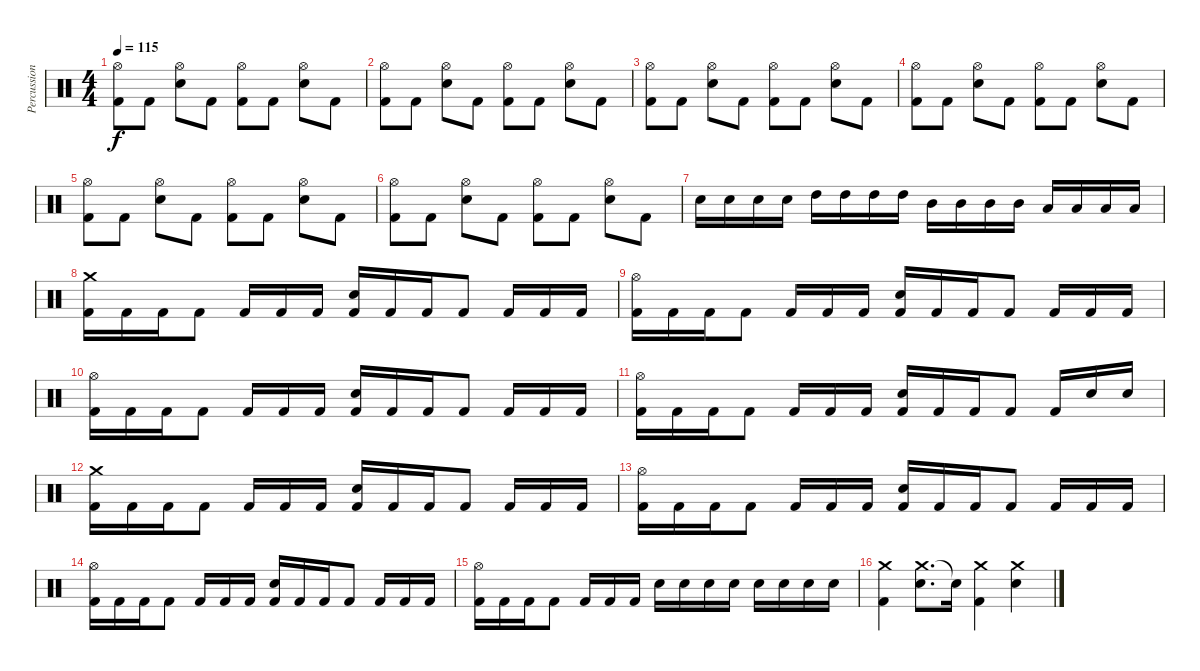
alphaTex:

\track ("Percussions" "Percussion") {instrument percussion}
\staff {score}
\articulation defaults
\ts (4 4)
\tempo 115
\clef neutral
\ks c
("Hi-Hat (open)" "Kick (hit) 2").8{dy f} "Kick (hit) 2".8 ("Hi-Hat (open)" "Electric Snare (hit)").8 "Kick (hit) 2".8 ("Hi-Hat (open)" "Kick (hit) 2").8 "Kick (hit) 2".8 ("Hi-Hat (open)" "Electric Snare (hit)").8 "Kick (hit) 2".8 |
("Hi-Hat (open)" "Kick (hit) 2").8 "Kick (hit) 2".8 ("Hi-Hat (open)" "Electric Snare (hit)").8 "Kick (hit) 2".8 ("Hi-Hat (open)" "Kick (hit) 2").8 "Kick (hit) 2".8 ("Hi-Hat (open)" "Electric Snare (hit)").8 "Kick (hit) 2".8 |
("Hi-Hat (open)" "Kick (hit) 2").8 "Kick (hit) 2".8 ("Hi-Hat (open)" "Electric Snare (hit)").8 "Kick (hit) 2".8 ("Hi-Hat (open)" "Kick (hit) 2").8 "Kick (hit) 2".8 ("Hi-Hat (open)" "Electric Snare (hit)").8 "Kick (hit) 2".8 |
("Hi-Hat (open)" "Kick (hit) 2").8 "Kick (hit) 2".8 ("Hi-Hat (open)" "Electric Snare (hit)").8 "Kick (hit) 2".8 ("Hi-Hat (open)" "Kick (hit) 2").8 "Kick (hit) 2".8 ("Hi-Hat (open)" "Electric Snare (hit)").8 "Kick (hit) 2".8 |
("Hi-Hat (open)" "Kick (hit) 2").8 "Kick (hit) 2".8 ("Hi-Hat (open)" "Electric Snare (hit)").8 "Kick (hit) 2".8 ("Hi-Hat (open)" "Kick (hit) 2").8 "Kick (hit) 2".8 ("Hi-Hat (open)" "Electric Snare (hit)").8 "Kick (hit) 2".8 |
("Hi-Hat (open)" "Kick (hit) 2").8 "Kick (hit) 2".8 ("Hi-Hat (open)" "Electric Snare (hit)").8 "Kick (hit) 2".8 ("Hi-Hat (open)" "Kick (hit) 2").8 "Kick (hit) 2".8 ("Hi-Hat (open)" "Electric Snare (hit)").8 "Kick (hit) 2".8 |
"Electric Snare (hit)".16 "Electric Snare (hit)".16 "Electric Snare (hit)".16 "Electric Snare (hit)".16 "High Tom (hit)".16 "High Tom (hit)".16 "High Tom (hit)".16 "High Tom (hit)".16 "Mid Tom (hit)".16 "Mid Tom (hit)".16 "Mid Tom (hit)".16 "Mid Tom (hit)".16 "Low Tom (hit)".16 "Low Tom (hit)".16 "Low Tom (hit)".16 "Low Tom (hit)".16 |
("Kick (hit) 2" "Crash medium (hit)").16 "Kick (hit) 2".16 "Kick (hit) 2".16 "Kick (hit) 2".8 "Kick (hit) 2".16 "Kick (hit) 2".16 "Kick (hit) 2".16 ("Kick (hit) 2" "Electric Snare (hit)").16 "Kick (hit) 2".16 "Kick (hit) 2".16 "Kick (hit) 2".8 "Kick (hit) 2".16 "Kick (hit) 2".16 "Kick (hit) 2".16 |
("Kick (hit) 2" "Hi-Hat (open)").16 "Kick (hit) 2".16 "Kick (hit) 2".16 "Kick (hit) 2".8 "Kick (hit) 2".16 "Kick (hit) 2".16 "Kick (hit) 2".16 ("Kick (hit) 2" "Electric Snare (hit)").16 "Kick (hit) 2".16 "Kick (hit) 2".16 "Kick (hit) 2".8 "Kick (hit) 2".16 "Kick (hit) 2".16 "Kick (hit) 2".16 |
("Kick (hit) 2" "Hi-Hat (open)").16 "Kick (hit) 2".16 "Kick (hit) 2".16 "Kick (hit) 2".8 "Kick (hit) 2".16 "Kick (hit) 2".16 "Kick (hit) 2".16 ("Kick (hit) 2" "Electric Snare (hit)").16 "Kick (hit) 2".16 "Kick (hit) 2".16 "Kick (hit) 2".8 "Kick (hit) 2".16 "Kick (hit) 2".16 "Kick (hit) 2".16 |
("Kick (hit) 2" "Hi-Hat (open)").16 "Kick (hit) 2".16 "Kick (hit) 2".16 "Kick (hit) 2".8 "Kick (hit) 2".16 "Kick (hit) 2".16 "Kick (hit) 2".16 ("Kick (hit) 2" "Electric Snare (hit)").16 "Kick (hit) 2".16 "Kick (hit) 2".16 "Kick (hit) 2".8 "Kick (hit) 2".16 "Electric Snare (hit)".16 "Electric Snare (hit)".16 |
("Kick (hit) 2" "Crash medium (hit)").16 "Kick (hit) 2".16 "Kick (hit) 2".16 "Kick (hit) 2".8 "Kick (hit) 2".16 "Kick (hit) 2".16 "Kick (hit) 2".16 ("Kick (hit) 2" "Electric Snare (hit)").16 "Kick (hit) 2".16 "Kick (hit) 2".16 "Kick (hit) 2".8 "Kick (hit) 2".16 "Kick (hit) 2".16 "Kick (hit) 2".16 |
("Kick (hit) 2" "Hi-Hat (open)").16 "Kick (hit) 2".16 "Kick (hit) 2".16 "Kick (hit) 2".8 "Kick (hit) 2".16 "Kick (hit) 2".16 "Kick (hit) 2".16 ("Kick (hit) 2" "Electric Snare (hit)").16 "Kick (hit) 2".16 "Kick (hit) 2".16 "Kick (hit) 2".8 "Kick (hit) 2".16 "Kick (hit) 2".16 "Kick (hit) 2".16 |
("Kick (hit) 2" "Hi-Hat (open)").16 "Kick (hit) 2".16 "Kick (hit) 2".16 "Kick (hit) 2".8 "Kick (hit) 2".16 "Kick (hit) 2".16 "Kick (hit) 2".16 ("Kick (hit) 2" "Electric Snare (hit)").16 "Kick (hit) 2".16 "Kick (hit) 2".16 "Kick (hit) 2".8 "Kick (hit) 2".16 "Kick (hit) 2".16 "Kick (hit) 2".16 |
("Kick (hit) 2" "Hi-Hat (open)").16 "Kick (hit) 2".16 "Kick (hit) 2".16 "Kick (hit) 2".8 "Kick (hit) 2".16 "Kick (hit) 2".16 "Kick (hit) 2".16 "Electric Snare (hit)".16 "Electric Snare (hit)".16 "Electric Snare (hit)".16 "Electric Snare (hit)".16 "Electric Snare (hit)".16 "Electric Snare (hit)".16 "Electric Snare (hit)".16 "Electric Snare (hit)".16 |
("Crash medium (hit)" "Kick (hit) 2").4 ("Crash medium (hit)" "Electric Snare (hit)").8{d} "Snare (hit)"{t}.16 ("Crash medium (hit)" "Kick (hit) 2").4 ("Crash medium (hit)" "Electric Snare (hit)").4
